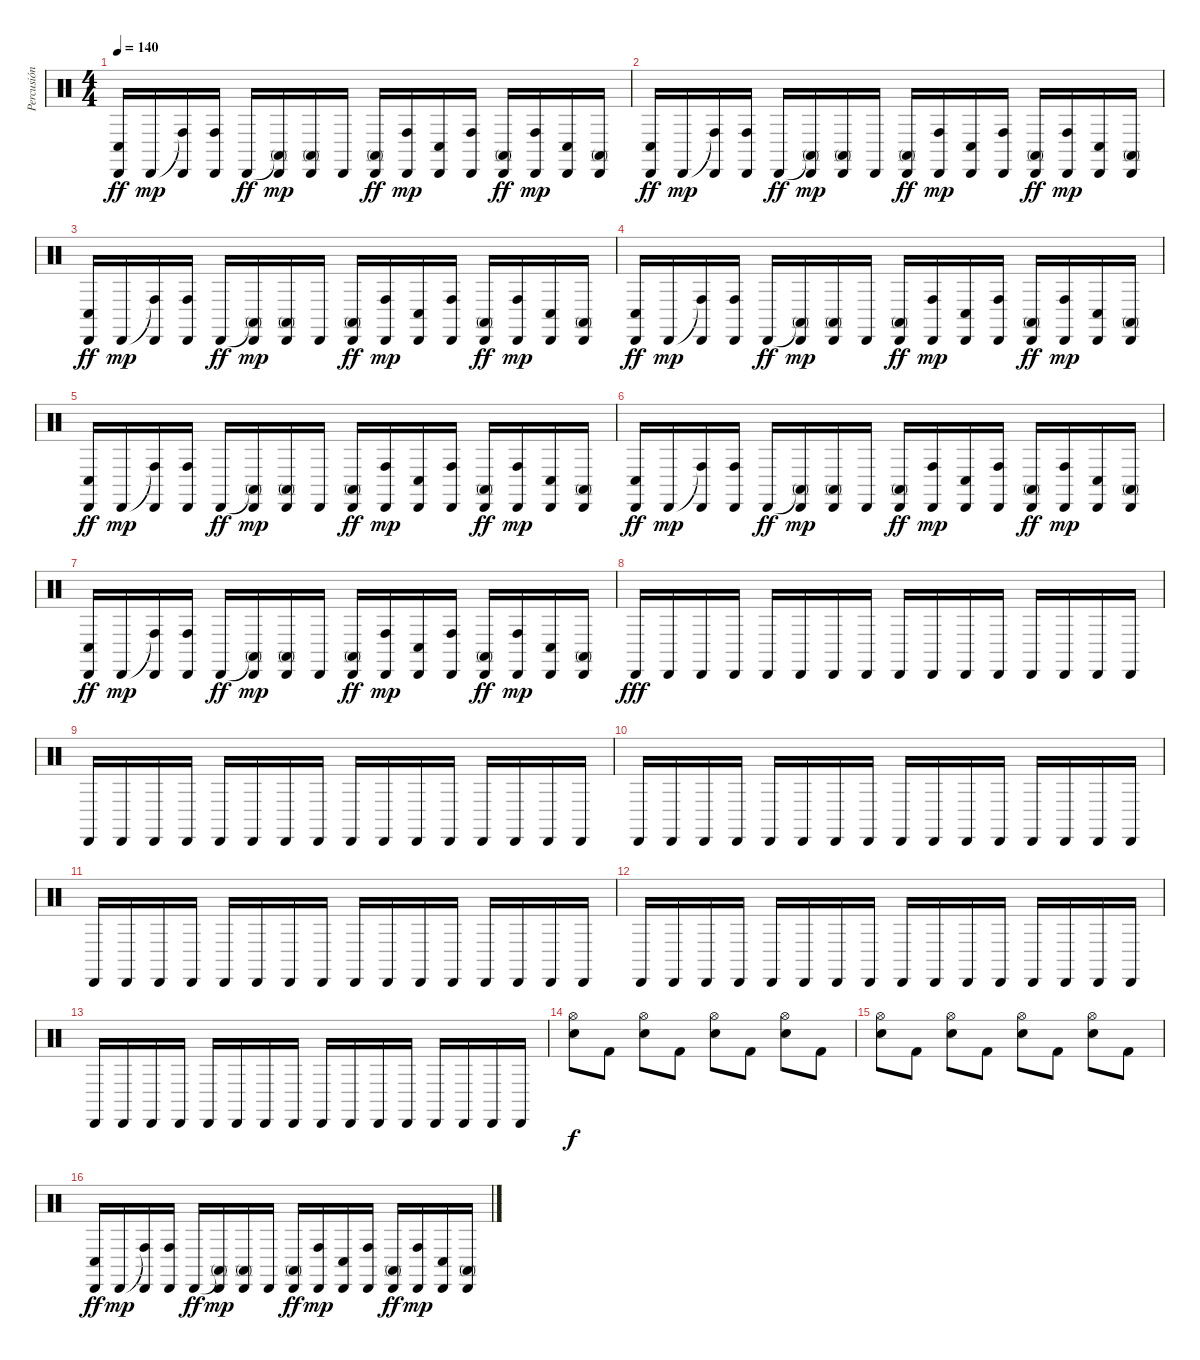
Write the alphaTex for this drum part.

\track ("Percusión" "Percusión") {instrument percussion}
\staff {score}
\articulation defaults
\ts (4 4)
\tempo 140
\clef neutral
\ks c
("Conga low (hit)" "Cabasa (hit)").16{dy ff} "Cabasa (hit)".16{dy mp} ("Conga high (hit)"{t} "Cabasa (hit)").16 ("Conga high (hit)" "Cabasa (hit)").16 "Cabasa (hit)".16{dy ff} ("Conga high (mute)"{t} "Cabasa (hit)").16{dy mp} ("Conga high (mute)" "Cabasa (hit)").16 "Cabasa (hit)".16 ("Conga high (mute)" "Cabasa (hit)").16{dy ff} ("Conga high (hit)" "Cabasa (hit)").16{dy mp} ("Conga low (hit)" "Cabasa (hit)").16 ("Conga high (hit)" "Cabasa (hit)").16 ("Conga high (mute)" "Cabasa (hit)").16{dy ff} ("Conga high (hit)" "Cabasa (hit)").16{dy mp} ("Conga low (hit)" "Cabasa (hit)").16 ("Conga high (mute)" "Cabasa (hit)").16 |
("Conga low (hit)" "Cabasa (hit)").16{dy ff} "Cabasa (hit)".16{dy mp} ("Conga high (hit)"{t} "Cabasa (hit)").16 ("Conga high (hit)" "Cabasa (hit)").16 "Cabasa (hit)".16{dy ff} ("Conga high (mute)"{t} "Cabasa (hit)").16{dy mp} ("Conga high (mute)" "Cabasa (hit)").16 "Cabasa (hit)".16 ("Conga high (mute)" "Cabasa (hit)").16{dy ff} ("Conga high (hit)" "Cabasa (hit)").16{dy mp} ("Conga low (hit)" "Cabasa (hit)").16 ("Conga high (hit)" "Cabasa (hit)").16 ("Conga high (mute)" "Cabasa (hit)").16{dy ff} ("Conga high (hit)" "Cabasa (hit)").16{dy mp} ("Conga low (hit)" "Cabasa (hit)").16 ("Conga high (mute)" "Cabasa (hit)").16 |
("Conga low (hit)" "Cabasa (hit)").16{dy ff} "Cabasa (hit)".16{dy mp} ("Conga high (hit)"{t} "Cabasa (hit)").16 ("Conga high (hit)" "Cabasa (hit)").16 "Cabasa (hit)".16{dy ff} ("Conga high (mute)"{t} "Cabasa (hit)").16{dy mp} ("Conga high (mute)" "Cabasa (hit)").16 "Cabasa (hit)".16 ("Conga high (mute)" "Cabasa (hit)").16{dy ff} ("Conga high (hit)" "Cabasa (hit)").16{dy mp} ("Conga low (hit)" "Cabasa (hit)").16 ("Conga high (hit)" "Cabasa (hit)").16 ("Conga high (mute)" "Cabasa (hit)").16{dy ff} ("Conga high (hit)" "Cabasa (hit)").16{dy mp} ("Conga low (hit)" "Cabasa (hit)").16 ("Conga high (mute)" "Cabasa (hit)").16 |
("Conga low (hit)" "Cabasa (hit)").16{dy ff} "Cabasa (hit)".16{dy mp} ("Conga high (hit)"{t} "Cabasa (hit)").16 ("Conga high (hit)" "Cabasa (hit)").16 "Cabasa (hit)".16{dy ff} ("Conga high (mute)"{t} "Cabasa (hit)").16{dy mp} ("Conga high (mute)" "Cabasa (hit)").16 "Cabasa (hit)".16 ("Conga high (mute)" "Cabasa (hit)").16{dy ff} ("Conga high (hit)" "Cabasa (hit)").16{dy mp} ("Conga low (hit)" "Cabasa (hit)").16 ("Conga high (hit)" "Cabasa (hit)").16 ("Conga high (mute)" "Cabasa (hit)").16{dy ff} ("Conga high (hit)" "Cabasa (hit)").16{dy mp} ("Conga low (hit)" "Cabasa (hit)").16 ("Conga high (mute)" "Cabasa (hit)").16 |
("Conga low (hit)" "Cabasa (hit)").16{dy ff} "Cabasa (hit)".16{dy mp} ("Conga high (hit)"{t} "Cabasa (hit)").16 ("Conga high (hit)" "Cabasa (hit)").16 "Cabasa (hit)".16{dy ff} ("Conga high (mute)"{t} "Cabasa (hit)").16{dy mp} ("Conga high (mute)" "Cabasa (hit)").16 "Cabasa (hit)".16 ("Conga high (mute)" "Cabasa (hit)").16{dy ff} ("Conga high (hit)" "Cabasa (hit)").16{dy mp} ("Conga low (hit)" "Cabasa (hit)").16 ("Conga high (hit)" "Cabasa (hit)").16 ("Conga high (mute)" "Cabasa (hit)").16{dy ff} ("Conga high (hit)" "Cabasa (hit)").16{dy mp} ("Conga low (hit)" "Cabasa (hit)").16 ("Conga high (mute)" "Cabasa (hit)").16 |
("Conga low (hit)" "Cabasa (hit)").16{dy ff} "Cabasa (hit)".16{dy mp} ("Conga high (hit)"{t} "Cabasa (hit)").16 ("Conga high (hit)" "Cabasa (hit)").16 "Cabasa (hit)".16{dy ff} ("Conga high (mute)"{t} "Cabasa (hit)").16{dy mp} ("Conga high (mute)" "Cabasa (hit)").16 "Cabasa (hit)".16 ("Conga high (mute)" "Cabasa (hit)").16{dy ff} ("Conga high (hit)" "Cabasa (hit)").16{dy mp} ("Conga low (hit)" "Cabasa (hit)").16 ("Conga high (hit)" "Cabasa (hit)").16 ("Conga high (mute)" "Cabasa (hit)").16{dy ff} ("Conga high (hit)" "Cabasa (hit)").16{dy mp} ("Conga low (hit)" "Cabasa (hit)").16 ("Conga high (mute)" "Cabasa (hit)").16 |
("Conga low (hit)" "Cabasa (hit)").16{dy ff} "Cabasa (hit)".16{dy mp} ("Conga high (hit)"{t} "Cabasa (hit)").16 ("Conga high (hit)" "Cabasa (hit)").16 "Cabasa (hit)".16{dy ff} ("Conga high (mute)"{t} "Cabasa (hit)").16{dy mp} ("Conga high (mute)" "Cabasa (hit)").16 "Cabasa (hit)".16 ("Conga high (mute)" "Cabasa (hit)").16{dy ff} ("Conga high (hit)" "Cabasa (hit)").16{dy mp} ("Conga low (hit)" "Cabasa (hit)").16 ("Conga high (hit)" "Cabasa (hit)").16 ("Conga high (mute)" "Cabasa (hit)").16{dy ff} ("Conga high (hit)" "Cabasa (hit)").16{dy mp} ("Conga low (hit)" "Cabasa (hit)").16 ("Conga high (mute)" "Cabasa (hit)").16 |
"Cabasa (hit)".16{dy fff} "Cabasa (hit)".16 "Cabasa (hit)".16 "Cabasa (hit)".16 "Cabasa (hit)".16 "Cabasa (hit)".16 "Cabasa (hit)".16 "Cabasa (hit)".16 "Cabasa (hit)".16 "Cabasa (hit)".16 "Cabasa (hit)".16 "Cabasa (hit)".16 "Cabasa (hit)".16 "Cabasa (hit)".16 "Cabasa (hit)".16 "Cabasa (hit)".16 |
"Cabasa (hit)".16 "Cabasa (hit)".16 "Cabasa (hit)".16 "Cabasa (hit)".16 "Cabasa (hit)".16 "Cabasa (hit)".16 "Cabasa (hit)".16 "Cabasa (hit)".16 "Cabasa (hit)".16 "Cabasa (hit)".16 "Cabasa (hit)".16 "Cabasa (hit)".16 "Cabasa (hit)".16 "Cabasa (hit)".16 "Cabasa (hit)".16 "Cabasa (hit)".16 |
"Cabasa (hit)".16 "Cabasa (hit)".16 "Cabasa (hit)".16 "Cabasa (hit)".16 "Cabasa (hit)".16 "Cabasa (hit)".16 "Cabasa (hit)".16 "Cabasa (hit)".16 "Cabasa (hit)".16 "Cabasa (hit)".16 "Cabasa (hit)".16 "Cabasa (hit)".16 "Cabasa (hit)".16 "Cabasa (hit)".16 "Cabasa (hit)".16 "Cabasa (hit)".16 |
"Cabasa (hit)".16 "Cabasa (hit)".16 "Cabasa (hit)".16 "Cabasa (hit)".16 "Cabasa (hit)".16 "Cabasa (hit)".16 "Cabasa (hit)".16 "Cabasa (hit)".16 "Cabasa (hit)".16 "Cabasa (hit)".16 "Cabasa (hit)".16 "Cabasa (hit)".16 "Cabasa (hit)".16 "Cabasa (hit)".16 "Cabasa (hit)".16 "Cabasa (hit)".16 |
"Cabasa (hit)".16 "Cabasa (hit)".16 "Cabasa (hit)".16 "Cabasa (hit)".16 "Cabasa (hit)".16 "Cabasa (hit)".16 "Cabasa (hit)".16 "Cabasa (hit)".16 "Cabasa (hit)".16 "Cabasa (hit)".16 "Cabasa (hit)".16 "Cabasa (hit)".16 "Cabasa (hit)".16 "Cabasa (hit)".16 "Cabasa (hit)".16 "Cabasa (hit)".16 |
"Cabasa (hit)".16 "Cabasa (hit)".16 "Cabasa (hit)".16 "Cabasa (hit)".16 "Cabasa (hit)".16 "Cabasa (hit)".16 "Cabasa (hit)".16 "Cabasa (hit)".16 "Cabasa (hit)".16 "Cabasa (hit)".16 "Cabasa (hit)".16 "Cabasa (hit)".16 "Cabasa (hit)".16 "Cabasa (hit)".16 "Cabasa (hit)".16 "Cabasa (hit)".16 |
("Hi-Hat (open)" "Snare (hit) 2").8{dy f} "Kick (hit) 2".8 ("Hi-Hat (open)" "Snare (hit) 2").8 "Kick (hit) 2".8 ("Hi-Hat (open)" "Snare (hit) 2").8 "Kick (hit) 2".8 ("Hi-Hat (open)" "Snare (hit) 2").8 "Kick (hit) 2".8 |
("Hi-Hat (open)" "Snare (hit) 2").8 "Kick (hit) 2".8 ("Hi-Hat (open)" "Snare (hit) 2").8 "Kick (hit) 2".8 ("Hi-Hat (open)" "Snare (hit) 2").8 "Kick (hit) 2".8 ("Hi-Hat (open)" "Snare (hit) 2").8 "Kick (hit) 2".8 |
("Conga low (hit)" "Cabasa (hit)").16{dy ff} "Cabasa (hit)".16{dy mp} ("Conga high (hit)"{t} "Cabasa (hit)").16 ("Conga high (hit)" "Cabasa (hit)").16 "Cabasa (hit)".16{dy ff} ("Conga high (mute)"{t} "Cabasa (hit)").16{dy mp} ("Conga high (mute)" "Cabasa (hit)").16 "Cabasa (hit)".16 ("Conga high (mute)" "Cabasa (hit)").16{dy ff} ("Conga high (hit)" "Cabasa (hit)").16{dy mp} ("Conga low (hit)" "Cabasa (hit)").16 ("Conga high (hit)" "Cabasa (hit)").16 ("Conga high (mute)" "Cabasa (hit)").16{dy ff} ("Conga high (hit)" "Cabasa (hit)").16{dy mp} ("Conga low (hit)" "Cabasa (hit)").16 ("Conga high (mute)" "Cabasa (hit)").16
